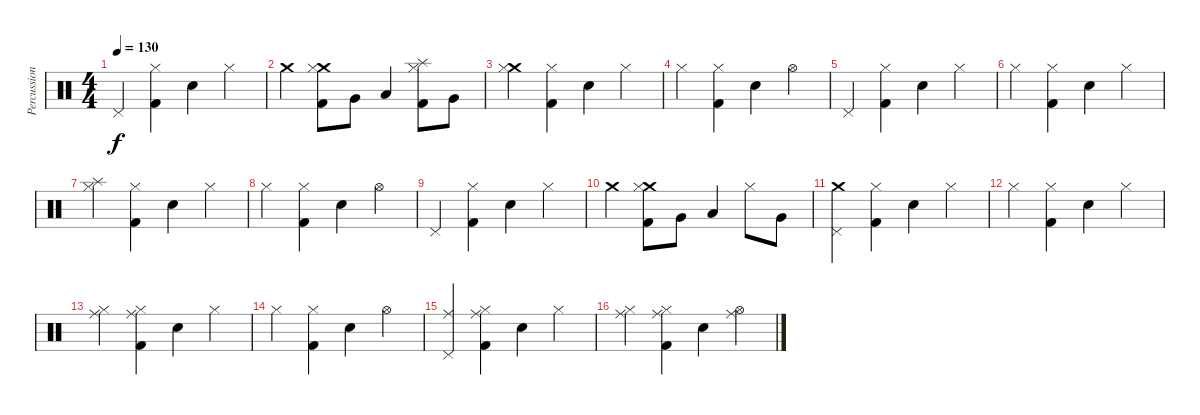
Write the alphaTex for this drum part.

\track ("Percussion" "Percussion") {instrument percussion}
\staff {score}
\articulation defaults
\ts (4 4)
\tempo 130
\clef neutral
\ks c "Pedal Hi-Hat (hit)".4{dy f}
("Hi-Hat (closed)" "Kick (hit) 2").4 "Snare (hit) 2".4 "Hi-Hat (closed)".4 |
"Crash medium (hit)".4 ("Crash medium (hit)" "Hi-Hat (closed)" "Kick (hit) 2").8 "Very Low Tom (hit)".8 "Low Floor Tom (hit)".4 ("Splash (hit)" "Hi-Hat (closed)" "Kick (hit) 2").8 "Very Low Tom (hit)".8 |
("Crash medium (hit)" "Hi-Hat (closed)").4 ("Hi-Hat (closed)" "Kick (hit) 2").4 "Snare (hit) 2".4 "Hi-Hat (closed)".4 |
"Hi-Hat (closed)".4 ("Hi-Hat (closed)" "Kick (hit) 2").4 "Snare (hit) 2".4 "Hi-Hat (open)".4 |
"Pedal Hi-Hat (hit)".4 ("Hi-Hat (closed)" "Kick (hit) 2").4 "Snare (hit) 2".4 "Hi-Hat (closed)".4 |
"Hi-Hat (closed)".4 ("Hi-Hat (closed)" "Kick (hit) 2").4 "Snare (hit) 2".4 "Hi-Hat (closed)".4 |
("Splash (hit)" "Hi-Hat (closed)").4 ("Hi-Hat (closed)" "Kick (hit) 2").4 "Snare (hit) 2".4 "Hi-Hat (closed)".4 |
"Hi-Hat (closed)".4 ("Hi-Hat (closed)" "Kick (hit) 2").4 "Snare (hit) 2".4 "Hi-Hat (open)".4 |
"Pedal Hi-Hat (hit)".4 ("Hi-Hat (closed)" "Kick (hit) 2").4 "Snare (hit) 2".4 "Hi-Hat (closed)".4 |
"Crash medium (hit)".4 ("Crash medium (hit)" "Hi-Hat (closed)" "Kick (hit) 2").8 "Very Low Tom (hit)".8 "Low Floor Tom (hit)".4 "Hi-Hat (closed)".8 "Very Low Tom (hit)".8 |
("Crash medium (hit)" "Pedal Hi-Hat (hit)").4 ("Hi-Hat (closed)" "Kick (hit) 2").4 "Snare (hit) 2".4 "Hi-Hat (closed)".4 |
"Hi-Hat (closed)".4 ("Hi-Hat (closed)" "Kick (hit) 2").4 "Snare (hit) 2".4 "Hi-Hat (closed)".4 |
("Ride (middle)" "Hi-Hat (closed)").4 ("Ride (middle)" "Hi-Hat (closed)" "Kick (hit) 2").4 "Snare (hit) 2".4 "Hi-Hat (closed)".4 |
"Hi-Hat (closed)".4 ("Hi-Hat (closed)" "Kick (hit) 2").4 "Snare (hit) 2".4 "Hi-Hat (open)".4 |
("Ride (middle)" "Pedal Hi-Hat (hit)").4 ("Ride (middle)" "Hi-Hat (closed)" "Kick (hit) 2").4 "Snare (hit) 2".4 "Hi-Hat (closed)".4 |
("Ride (middle)" "Hi-Hat (closed)").4 ("Ride (middle)" "Hi-Hat (closed)" "Kick (hit) 2").4 "Snare (hit) 2".4 ("Ride (middle)" "Hi-Hat (open)").4
